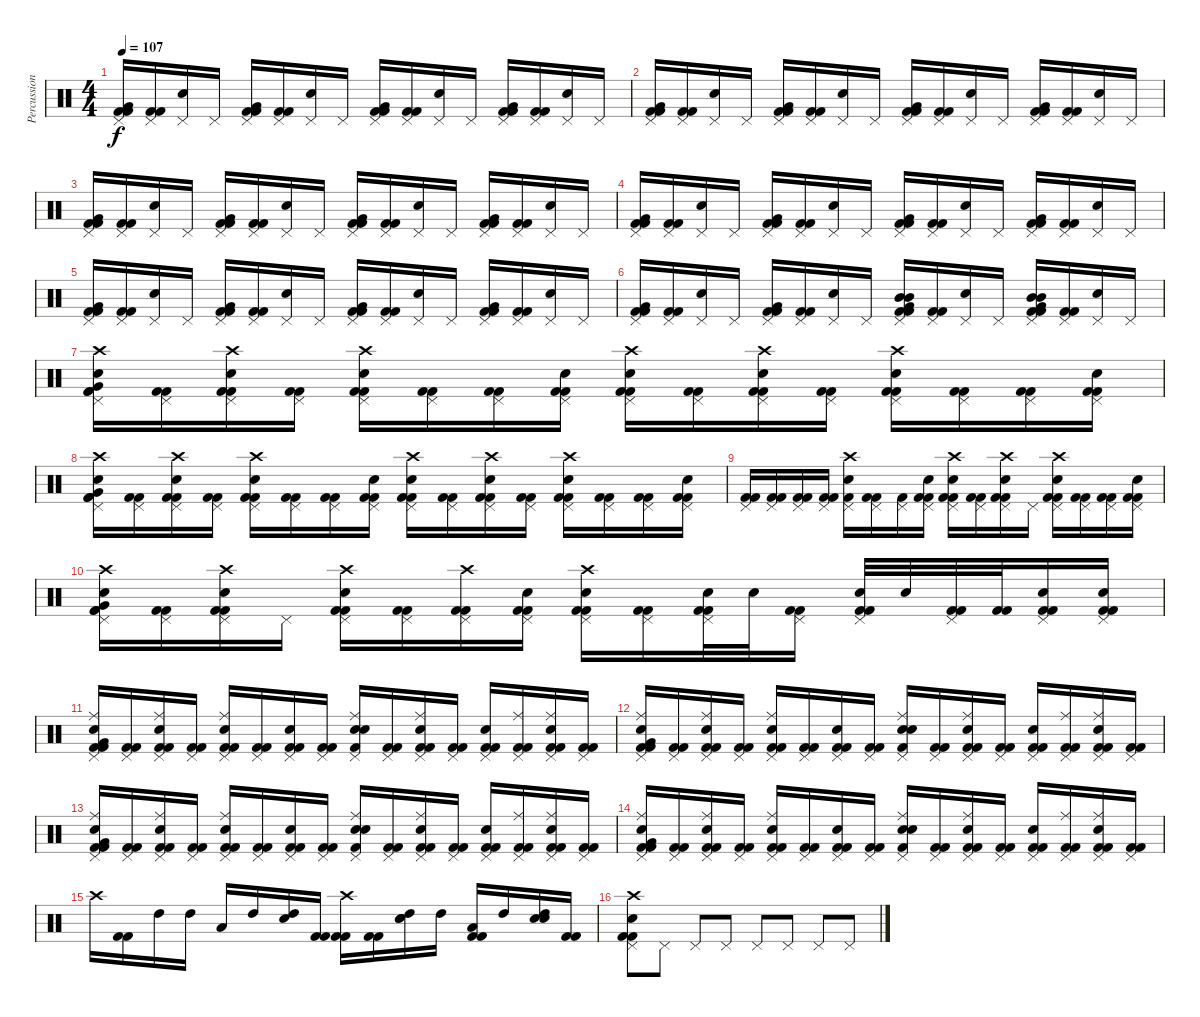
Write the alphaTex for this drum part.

\track ("Percussion" "Percussion") {instrument percussion}
\staff {score}
\articulation defaults
\ts (4 4)
\tempo 107
\clef neutral
\ks c
("Pedal Hi-Hat (hit)" "Very Low Tom (hit)" "Kick (hit) 2" "Kick (hit) 2").16{dy f} ("Pedal Hi-Hat (hit)" "Kick (hit) 2" "Kick (hit) 2").16 ("Pedal Hi-Hat (hit)" "Electric Snare (hit)").16 "Pedal Hi-Hat (hit)".16 ("Pedal Hi-Hat (hit)" "Very Low Tom (hit)" "Kick (hit) 2" "Kick (hit) 2").16 ("Pedal Hi-Hat (hit)" "Kick (hit) 2" "Kick (hit) 2").16 ("Pedal Hi-Hat (hit)" "Electric Snare (hit)").16 "Pedal Hi-Hat (hit)".16 ("Pedal Hi-Hat (hit)" "Very Low Tom (hit)" "Kick (hit) 2" "Kick (hit) 2").16 ("Pedal Hi-Hat (hit)" "Kick (hit) 2" "Kick (hit) 2").16 ("Pedal Hi-Hat (hit)" "Electric Snare (hit)").16 "Pedal Hi-Hat (hit)".16 ("Pedal Hi-Hat (hit)" "Very Low Tom (hit)" "Kick (hit) 2" "Kick (hit) 2").16 ("Pedal Hi-Hat (hit)" "Kick (hit) 2" "Kick (hit) 2").16 ("Pedal Hi-Hat (hit)" "Electric Snare (hit)").16 "Pedal Hi-Hat (hit)".16 |
("Pedal Hi-Hat (hit)" "Very Low Tom (hit)" "Kick (hit) 2" "Kick (hit) 2").16 ("Pedal Hi-Hat (hit)" "Kick (hit) 2" "Kick (hit) 2").16 ("Pedal Hi-Hat (hit)" "Electric Snare (hit)").16 "Pedal Hi-Hat (hit)".16 ("Pedal Hi-Hat (hit)" "Very Low Tom (hit)" "Kick (hit) 2" "Kick (hit) 2").16 ("Pedal Hi-Hat (hit)" "Kick (hit) 2" "Kick (hit) 2").16 ("Pedal Hi-Hat (hit)" "Electric Snare (hit)").16 "Pedal Hi-Hat (hit)".16 ("Pedal Hi-Hat (hit)" "Very Low Tom (hit)" "Kick (hit) 2" "Kick (hit) 2").16 ("Pedal Hi-Hat (hit)" "Kick (hit) 2" "Kick (hit) 2").16 ("Pedal Hi-Hat (hit)" "Electric Snare (hit)").16 "Pedal Hi-Hat (hit)".16 ("Pedal Hi-Hat (hit)" "Very Low Tom (hit)" "Kick (hit) 2" "Kick (hit) 2").16 ("Pedal Hi-Hat (hit)" "Kick (hit) 2" "Kick (hit) 2").16 ("Pedal Hi-Hat (hit)" "Electric Snare (hit)").16 "Pedal Hi-Hat (hit)".16 |
("Pedal Hi-Hat (hit)" "Very Low Tom (hit)" "Kick (hit) 2" "Kick (hit) 2").16 ("Pedal Hi-Hat (hit)" "Kick (hit) 2" "Kick (hit) 2").16 ("Pedal Hi-Hat (hit)" "Electric Snare (hit)").16 "Pedal Hi-Hat (hit)".16 ("Pedal Hi-Hat (hit)" "Very Low Tom (hit)" "Kick (hit) 2" "Kick (hit) 2").16 ("Pedal Hi-Hat (hit)" "Kick (hit) 2" "Kick (hit) 2").16 ("Pedal Hi-Hat (hit)" "Electric Snare (hit)").16 "Pedal Hi-Hat (hit)".16 ("Pedal Hi-Hat (hit)" "Very Low Tom (hit)" "Kick (hit) 2" "Kick (hit) 2").16 ("Pedal Hi-Hat (hit)" "Kick (hit) 2" "Kick (hit) 2").16 ("Pedal Hi-Hat (hit)" "Electric Snare (hit)").16 "Pedal Hi-Hat (hit)".16 ("Pedal Hi-Hat (hit)" "Very Low Tom (hit)" "Kick (hit) 2" "Kick (hit) 2").16 ("Pedal Hi-Hat (hit)" "Kick (hit) 2" "Kick (hit) 2").16 ("Pedal Hi-Hat (hit)" "Electric Snare (hit)").16 "Pedal Hi-Hat (hit)".16 |
("Pedal Hi-Hat (hit)" "Very Low Tom (hit)" "Kick (hit) 2" "Kick (hit) 2").16 ("Pedal Hi-Hat (hit)" "Kick (hit) 2" "Kick (hit) 2").16 ("Pedal Hi-Hat (hit)" "Electric Snare (hit)").16 "Pedal Hi-Hat (hit)".16 ("Pedal Hi-Hat (hit)" "Very Low Tom (hit)" "Kick (hit) 2" "Kick (hit) 2").16 ("Pedal Hi-Hat (hit)" "Kick (hit) 2" "Kick (hit) 2").16 ("Pedal Hi-Hat (hit)" "Electric Snare (hit)").16 "Pedal Hi-Hat (hit)".16 ("Pedal Hi-Hat (hit)" "Very Low Tom (hit)" "Kick (hit) 2" "Kick (hit) 2").16 ("Pedal Hi-Hat (hit)" "Kick (hit) 2" "Kick (hit) 2").16 ("Pedal Hi-Hat (hit)" "Electric Snare (hit)").16 "Pedal Hi-Hat (hit)".16 ("Pedal Hi-Hat (hit)" "Very Low Tom (hit)" "Kick (hit) 2" "Kick (hit) 2").16 ("Pedal Hi-Hat (hit)" "Kick (hit) 2" "Kick (hit) 2").16 ("Pedal Hi-Hat (hit)" "Electric Snare (hit)").16 "Pedal Hi-Hat (hit)".16 |
("Pedal Hi-Hat (hit)" "Very Low Tom (hit)" "Kick (hit) 2" "Kick (hit) 2").16 ("Pedal Hi-Hat (hit)" "Kick (hit) 2" "Kick (hit) 2").16 ("Pedal Hi-Hat (hit)" "Electric Snare (hit)").16 "Pedal Hi-Hat (hit)".16 ("Pedal Hi-Hat (hit)" "Very Low Tom (hit)" "Kick (hit) 2" "Kick (hit) 2").16 ("Pedal Hi-Hat (hit)" "Kick (hit) 2" "Kick (hit) 2").16 ("Pedal Hi-Hat (hit)" "Electric Snare (hit)").16 "Pedal Hi-Hat (hit)".16 ("Pedal Hi-Hat (hit)" "Very Low Tom (hit)" "Kick (hit) 2" "Kick (hit) 2").16 ("Pedal Hi-Hat (hit)" "Kick (hit) 2" "Kick (hit) 2").16 ("Pedal Hi-Hat (hit)" "Electric Snare (hit)").16 "Pedal Hi-Hat (hit)".16 ("Pedal Hi-Hat (hit)" "Very Low Tom (hit)" "Kick (hit) 2" "Kick (hit) 2").16 ("Pedal Hi-Hat (hit)" "Kick (hit) 2" "Kick (hit) 2").16 ("Pedal Hi-Hat (hit)" "Electric Snare (hit)").16 "Pedal Hi-Hat (hit)".16 |
("Pedal Hi-Hat (hit)" "Very Low Tom (hit)" "Kick (hit) 2" "Kick (hit) 2").16 ("Pedal Hi-Hat (hit)" "Kick (hit) 2" "Kick (hit) 2").16 ("Pedal Hi-Hat (hit)" "Electric Snare (hit)").16 "Pedal Hi-Hat (hit)".16 ("Pedal Hi-Hat (hit)" "Very Low Tom (hit)" "Kick (hit) 2" "Kick (hit) 2").16 ("Pedal Hi-Hat (hit)" "Kick (hit) 2" "Kick (hit) 2").16 ("Pedal Hi-Hat (hit)" "Electric Snare (hit)").16 "Pedal Hi-Hat (hit)".16 ("Pedal Hi-Hat (hit)" "Mid Tom (hit)" "Very Low Tom (hit)" "Kick (hit) 2" "Kick (hit) 2" "Mid Tom (hit)").16 ("Pedal Hi-Hat (hit)" "Kick (hit) 2" "Kick (hit) 2").16 ("Pedal Hi-Hat (hit)" "Electric Snare (hit)").16 "Pedal Hi-Hat (hit)".16 ("Pedal Hi-Hat (hit)" "Mid Tom (hit)" "Very Low Tom (hit)" "Kick (hit) 2" "Kick (hit) 2" "Mid Tom (hit)").16 ("Pedal Hi-Hat (hit)" "Kick (hit) 2" "Kick (hit) 2").16 ("Pedal Hi-Hat (hit)" "Electric Snare (hit)").16 "Pedal Hi-Hat (hit)".16 |
("Pedal Hi-Hat (hit)" "Crash high (hit)" "Very Low Tom (hit)" "Electric Snare (hit)" "Kick (hit) 2" "Kick (hit) 2").16 ("Pedal Hi-Hat (hit)" "Kick (hit) 2" "Kick (hit) 2").16 ("Pedal Hi-Hat (hit)" "Crash high (hit)" "Electric Snare (hit)" "Kick (hit) 2" "Kick (hit) 2").16 ("Pedal Hi-Hat (hit)" "Kick (hit) 2" "Kick (hit) 2").16 ("Pedal Hi-Hat (hit)" "Crash high (hit)" "Electric Snare (hit)" "Kick (hit) 2" "Kick (hit) 2").16 ("Pedal Hi-Hat (hit)" "Kick (hit) 2" "Kick (hit) 2").16 ("Pedal Hi-Hat (hit)" "Kick (hit) 2" "Kick (hit) 2").16 ("Pedal Hi-Hat (hit)" "Electric Snare (hit)" "Kick (hit) 2" "Kick (hit) 2").16 ("Pedal Hi-Hat (hit)" "Crash high (hit)" "Electric Snare (hit)" "Kick (hit) 2" "Kick (hit) 2").16 ("Pedal Hi-Hat (hit)" "Kick (hit) 2" "Kick (hit) 2").16 ("Pedal Hi-Hat (hit)" "Crash high (hit)" "Electric Snare (hit)" "Kick (hit) 2" "Kick (hit) 2").16 ("Pedal Hi-Hat (hit)" "Kick (hit) 2" "Kick (hit) 2").16 ("Pedal Hi-Hat (hit)" "Crash high (hit)" "Electric Snare (hit)" "Kick (hit) 2" "Kick (hit) 2").16 ("Pedal Hi-Hat (hit)" "Kick (hit) 2" "Kick (hit) 2").16 ("Pedal Hi-Hat (hit)" "Kick (hit) 2" "Kick (hit) 2").16 ("Pedal Hi-Hat (hit)" "Electric Snare (hit)" "Kick (hit) 2" "Kick (hit) 2").16 |
("Pedal Hi-Hat (hit)" "Crash high (hit)" "Very Low Tom (hit)" "Electric Snare (hit)" "Kick (hit) 2" "Kick (hit) 2").16 ("Pedal Hi-Hat (hit)" "Kick (hit) 2" "Kick (hit) 2").16 ("Pedal Hi-Hat (hit)" "Crash high (hit)" "Electric Snare (hit)" "Kick (hit) 2" "Kick (hit) 2").16 ("Pedal Hi-Hat (hit)" "Kick (hit) 2" "Kick (hit) 2").16 ("Pedal Hi-Hat (hit)" "Crash high (hit)" "Electric Snare (hit)" "Kick (hit) 2" "Kick (hit) 2").16 ("Pedal Hi-Hat (hit)" "Kick (hit) 2" "Kick (hit) 2").16 ("Pedal Hi-Hat (hit)" "Kick (hit) 2" "Kick (hit) 2").16 ("Pedal Hi-Hat (hit)" "Electric Snare (hit)" "Kick (hit) 2" "Kick (hit) 2").16 ("Pedal Hi-Hat (hit)" "Crash high (hit)" "Electric Snare (hit)" "Kick (hit) 2" "Kick (hit) 2").16 ("Pedal Hi-Hat (hit)" "Kick (hit) 2" "Kick (hit) 2").16 ("Pedal Hi-Hat (hit)" "Crash high (hit)" "Electric Snare (hit)" "Kick (hit) 2" "Kick (hit) 2").16 ("Pedal Hi-Hat (hit)" "Kick (hit) 2" "Kick (hit) 2").16 ("Pedal Hi-Hat (hit)" "Crash high (hit)" "Electric Snare (hit)" "Kick (hit) 2" "Kick (hit) 2").16 ("Pedal Hi-Hat (hit)" "Kick (hit) 2" "Kick (hit) 2").16 ("Pedal Hi-Hat (hit)" "Kick (hit) 2" "Kick (hit) 2").16 ("Pedal Hi-Hat (hit)" "Electric Snare (hit)" "Kick (hit) 2" "Kick (hit) 2").16 |
("Pedal Hi-Hat (hit)" "Kick (hit) 2" "Kick (hit) 2").16 ("Pedal Hi-Hat (hit)" "Kick (hit) 2" "Kick (hit) 2").16 ("Pedal Hi-Hat (hit)" "Kick (hit) 2" "Kick (hit) 2").16 ("Pedal Hi-Hat (hit)" "Kick (hit) 2" "Kick (hit) 2").16 ("Pedal Hi-Hat (hit)" "Crash high (hit)" "Electric Snare (hit)" "Kick (hit) 2").16 ("Pedal Hi-Hat (hit)" "Kick (hit) 2" "Kick (hit) 2").16 ("Pedal Hi-Hat (hit)" "Kick (hit) 2").16 ("Pedal Hi-Hat (hit)" "Electric Snare (hit)" "Kick (hit) 2" "Kick (hit) 2").16 ("Pedal Hi-Hat (hit)" "Crash high (hit)" "Electric Snare (hit)" "Kick (hit) 2" "Kick (hit) 2").16 ("Pedal Hi-Hat (hit)" "Kick (hit) 2" "Kick (hit) 2").16 ("Pedal Hi-Hat (hit)" "Crash high (hit)" "Kick (hit) 2" "Electric Snare (hit)" "Kick (hit) 2").16 "Pedal Hi-Hat (hit)".16 ("Pedal Hi-Hat (hit)" "Crash high (hit)" "Kick (hit) 2" "Electric Snare (hit)" "Kick (hit) 2").16 ("Pedal Hi-Hat (hit)" "Kick (hit) 2" "Kick (hit) 2").16 ("Pedal Hi-Hat (hit)" "Kick (hit) 2" "Kick (hit) 2").16 ("Pedal Hi-Hat (hit)" "Kick (hit) 2" "Electric Snare (hit)" "Kick (hit) 2").16 |
("Pedal Hi-Hat (hit)" "Crash high (hit)" "Very Low Tom (hit)" "Electric Snare (hit)" "Kick (hit) 2" "Kick (hit) 2").16 ("Pedal Hi-Hat (hit)" "Kick (hit) 2" "Kick (hit) 2").16 ("Pedal Hi-Hat (hit)" "Crash high (hit)" "Electric Snare (hit)" "Kick (hit) 2" "Kick (hit) 2").16 "Pedal Hi-Hat (hit)".16 ("Pedal Hi-Hat (hit)" "Crash high (hit)" "Electric Snare (hit)" "Kick (hit) 2" "Kick (hit) 2").16 ("Pedal Hi-Hat (hit)" "Kick (hit) 2" "Kick (hit) 2").16 ("Pedal Hi-Hat (hit)" "Crash high (hit)" "Kick (hit) 2" "Kick (hit) 2").16 ("Pedal Hi-Hat (hit)" "Electric Snare (hit)" "Kick (hit) 2" "Kick (hit) 2").16 ("Pedal Hi-Hat (hit)" "Crash high (hit)" "Electric Snare (hit)" "Kick (hit) 2" "Kick (hit) 2").16 ("Pedal Hi-Hat (hit)" "Kick (hit) 2" "Kick (hit) 2").16 ("Pedal Hi-Hat (hit)" "Electric Snare (hit)" "Kick (hit) 2" "Kick (hit) 2").32 "Electric Snare (hit)".32 ("Pedal Hi-Hat (hit)" "Kick (hit) 2" "Kick (hit) 2").16 ("Pedal Hi-Hat (hit)" "Electric Snare (hit)" "Kick (hit) 2" "Kick (hit) 2").32 "Electric Snare (hit)".32 ("Pedal Hi-Hat (hit)" "Kick (hit) 2" "Kick (hit) 2").32 ("Kick (hit) 2" "Kick (hit) 2").32 ("Pedal Hi-Hat (hit)" "Electric Snare (hit)" "Kick (hit) 2" "Kick (hit) 2").16 ("Pedal Hi-Hat (hit)" "Electric Snare (hit)" "Kick (hit) 2" "Kick (hit) 2").16 |
("Pedal Hi-Hat (hit)" "Ride (middle)" "Very Low Tom (hit)" "Electric Snare (hit)" "Kick (hit) 2" "Kick (hit) 2").16 ("Pedal Hi-Hat (hit)" "Kick (hit) 2" "Kick (hit) 2").16 ("Pedal Hi-Hat (hit)" "Ride (middle)" "Electric Snare (hit)" "Kick (hit) 2" "Kick (hit) 2").16 ("Pedal Hi-Hat (hit)" "Kick (hit) 2" "Kick (hit) 2").16 ("Pedal Hi-Hat (hit)" "Ride (middle)" "Electric Snare (hit)" "Kick (hit) 2" "Kick (hit) 2").16 ("Pedal Hi-Hat (hit)" "Kick (hit) 2" "Kick (hit) 2").16 ("Pedal Hi-Hat (hit)" "Electric Snare (hit)" "Kick (hit) 2" "Kick (hit) 2").16 ("Pedal Hi-Hat (hit)" "Kick (hit) 2" "Kick (hit) 2").16 ("Pedal Hi-Hat (hit)" "Ride (middle)" "Electric Snare (hit)" "Electric Snare (hit)" "Kick (hit) 2").16 ("Pedal Hi-Hat (hit)" "Kick (hit) 2" "Kick (hit) 2").16 ("Pedal Hi-Hat (hit)" "Ride (middle)" "Electric Snare (hit)" "Kick (hit) 2" "Kick (hit) 2").16 ("Pedal Hi-Hat (hit)" "Kick (hit) 2" "Kick (hit) 2").16 ("Pedal Hi-Hat (hit)" "Electric Snare (hit)" "Kick (hit) 2" "Kick (hit) 2").16 ("Pedal Hi-Hat (hit)" "Ride (middle)" "Kick (hit) 2" "Kick (hit) 2").16 ("Pedal Hi-Hat (hit)" "Ride (middle)" "Electric Snare (hit)" "Kick (hit) 2" "Kick (hit) 2").16 ("Pedal Hi-Hat (hit)" "Kick (hit) 2" "Kick (hit) 2").16 |
("Pedal Hi-Hat (hit)" "Ride (middle)" "Very Low Tom (hit)" "Electric Snare (hit)" "Kick (hit) 2" "Kick (hit) 2").16 ("Pedal Hi-Hat (hit)" "Kick (hit) 2" "Kick (hit) 2").16 ("Pedal Hi-Hat (hit)" "Ride (middle)" "Electric Snare (hit)" "Kick (hit) 2" "Kick (hit) 2").16 ("Pedal Hi-Hat (hit)" "Kick (hit) 2" "Kick (hit) 2").16 ("Pedal Hi-Hat (hit)" "Ride (middle)" "Electric Snare (hit)" "Kick (hit) 2" "Kick (hit) 2").16 ("Pedal Hi-Hat (hit)" "Kick (hit) 2" "Kick (hit) 2").16 ("Pedal Hi-Hat (hit)" "Electric Snare (hit)" "Kick (hit) 2" "Kick (hit) 2").16 ("Pedal Hi-Hat (hit)" "Kick (hit) 2" "Kick (hit) 2").16 ("Pedal Hi-Hat (hit)" "Ride (middle)" "Electric Snare (hit)" "Electric Snare (hit)" "Kick (hit) 2").16 ("Pedal Hi-Hat (hit)" "Kick (hit) 2" "Kick (hit) 2").16 ("Pedal Hi-Hat (hit)" "Ride (middle)" "Electric Snare (hit)" "Kick (hit) 2" "Kick (hit) 2").16 ("Pedal Hi-Hat (hit)" "Kick (hit) 2" "Kick (hit) 2").16 ("Pedal Hi-Hat (hit)" "Electric Snare (hit)" "Kick (hit) 2" "Kick (hit) 2").16 ("Pedal Hi-Hat (hit)" "Ride (middle)" "Kick (hit) 2" "Kick (hit) 2").16 ("Pedal Hi-Hat (hit)" "Ride (middle)" "Electric Snare (hit)" "Kick (hit) 2" "Kick (hit) 2").16 ("Pedal Hi-Hat (hit)" "Kick (hit) 2" "Kick (hit) 2").16 |
("Pedal Hi-Hat (hit)" "Ride (middle)" "Very Low Tom (hit)" "Electric Snare (hit)" "Kick (hit) 2" "Kick (hit) 2").16 ("Pedal Hi-Hat (hit)" "Kick (hit) 2" "Kick (hit) 2").16 ("Pedal Hi-Hat (hit)" "Ride (middle)" "Electric Snare (hit)" "Kick (hit) 2" "Kick (hit) 2").16 ("Pedal Hi-Hat (hit)" "Kick (hit) 2" "Kick (hit) 2").16 ("Pedal Hi-Hat (hit)" "Ride (middle)" "Electric Snare (hit)" "Kick (hit) 2" "Kick (hit) 2").16 ("Pedal Hi-Hat (hit)" "Kick (hit) 2" "Kick (hit) 2").16 ("Pedal Hi-Hat (hit)" "Electric Snare (hit)" "Kick (hit) 2" "Kick (hit) 2").16 ("Pedal Hi-Hat (hit)" "Kick (hit) 2" "Kick (hit) 2").16 ("Pedal Hi-Hat (hit)" "Ride (middle)" "Electric Snare (hit)" "Electric Snare (hit)" "Kick (hit) 2").16 ("Pedal Hi-Hat (hit)" "Kick (hit) 2" "Kick (hit) 2").16 ("Pedal Hi-Hat (hit)" "Ride (middle)" "Electric Snare (hit)" "Kick (hit) 2" "Kick (hit) 2").16 ("Pedal Hi-Hat (hit)" "Kick (hit) 2" "Kick (hit) 2").16 ("Pedal Hi-Hat (hit)" "Electric Snare (hit)" "Kick (hit) 2" "Kick (hit) 2").16 ("Pedal Hi-Hat (hit)" "Ride (middle)" "Kick (hit) 2" "Kick (hit) 2").16 ("Pedal Hi-Hat (hit)" "Ride (middle)" "Electric Snare (hit)" "Kick (hit) 2" "Kick (hit) 2").16 ("Pedal Hi-Hat (hit)" "Kick (hit) 2" "Kick (hit) 2").16 |
("Pedal Hi-Hat (hit)" "Ride (middle)" "Very Low Tom (hit)" "Electric Snare (hit)" "Kick (hit) 2" "Kick (hit) 2").16 ("Pedal Hi-Hat (hit)" "Kick (hit) 2" "Kick (hit) 2").16 ("Pedal Hi-Hat (hit)" "Ride (middle)" "Electric Snare (hit)" "Kick (hit) 2" "Kick (hit) 2").16 ("Pedal Hi-Hat (hit)" "Kick (hit) 2" "Kick (hit) 2").16 ("Pedal Hi-Hat (hit)" "Ride (middle)" "Electric Snare (hit)" "Kick (hit) 2" "Kick (hit) 2").16 ("Pedal Hi-Hat (hit)" "Kick (hit) 2" "Kick (hit) 2").16 ("Pedal Hi-Hat (hit)" "Electric Snare (hit)" "Kick (hit) 2" "Kick (hit) 2").16 ("Pedal Hi-Hat (hit)" "Kick (hit) 2" "Kick (hit) 2").16 ("Pedal Hi-Hat (hit)" "Ride (middle)" "Electric Snare (hit)" "Electric Snare (hit)" "Kick (hit) 2").16 ("Pedal Hi-Hat (hit)" "Kick (hit) 2" "Kick (hit) 2").16 ("Pedal Hi-Hat (hit)" "Ride (middle)" "Electric Snare (hit)" "Kick (hit) 2" "Kick (hit) 2").16 ("Pedal Hi-Hat (hit)" "Kick (hit) 2" "Kick (hit) 2").16 ("Pedal Hi-Hat (hit)" "Electric Snare (hit)" "Kick (hit) 2" "Kick (hit) 2").16 ("Pedal Hi-Hat (hit)" "Ride (middle)" "Kick (hit) 2" "Kick (hit) 2").16 ("Pedal Hi-Hat (hit)" "Ride (middle)" "Electric Snare (hit)" "Kick (hit) 2" "Kick (hit) 2").16 ("Pedal Hi-Hat (hit)" "Kick (hit) 2" "Kick (hit) 2").16 |
"Crash high (hit)".16 ("Kick (hit) 2" "Kick (hit) 2").16 "High Tom (hit)".16 "High Tom (hit)".16 "Low Tom (hit)".16 "High Tom (hit)".16 ("High Tom (hit)" "Electric Snare (hit)").16 ("Kick (hit) 2" "Kick (hit) 2").16 ("Crash high (hit)" "Kick (hit) 2" "Kick (hit) 2").16 ("Kick (hit) 2" "Kick (hit) 2").16 ("High Tom (hit)" "Electric Snare (hit)" "Electric Snare (hit)").16 "High Tom (hit)".16 ("Low Tom (hit)" "Kick (hit) 2" "Kick (hit) 2").16 "High Tom (hit)".16 ("High Tom (hit)" "Electric Snare (hit)" "Electric Snare (hit)").16 ("Kick (hit) 2" "Kick (hit) 2").16 |
("Pedal Hi-Hat (hit)" "Electric Snare (hit)" "Kick (hit) 2" "Kick (hit) 2" "Crash high (hit)").8 "Pedal Hi-Hat (hit)".8 "Pedal Hi-Hat (hit)".8 "Pedal Hi-Hat (hit)".8 "Pedal Hi-Hat (hit)".8 "Pedal Hi-Hat (hit)".8 "Pedal Hi-Hat (hit)".8 "Pedal Hi-Hat (hit)".8
